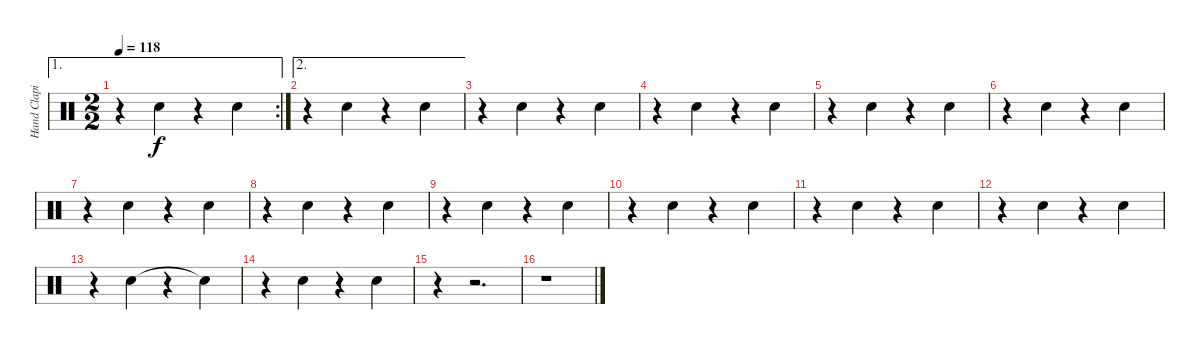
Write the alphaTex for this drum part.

\track ("Hand Claping" "Hand Clapi") {instrument percussion}
\staff {score}
\articulation defaults
\ae 1
\rc 2
\ts (2 2)
\tempo 118
\clef neutral
\ks c
r.4{dy f} "Hand Clap (hit)".4 r.4 "Hand Clap (hit)".4 |
\ae 2
r.4 "Hand Clap (hit)".4 r.4 "Hand Clap (hit)".4 |
r.4 "Hand Clap (hit)".4 r.4 "Hand Clap (hit)".4 |
r.4 "Hand Clap (hit)".4 r.4 "Hand Clap (hit)".4 |
r.4 "Hand Clap (hit)".4 r.4 "Hand Clap (hit)".4 |
r.4 "Hand Clap (hit)".4 r.4 "Hand Clap (hit)".4 |
r.4 "Hand Clap (hit)".4 r.4 "Hand Clap (hit)".4 |
r.4 "Hand Clap (hit)".4 r.4 "Hand Clap (hit)".4 |
r.4 "Hand Clap (hit)".4 r.4 "Hand Clap (hit)".4 |
r.4 "Hand Clap (hit)".4 r.4 "Hand Clap (hit)".4 |
r.4 "Hand Clap (hit)".4 r.4 "Hand Clap (hit)".4 |
r.4 "Hand Clap (hit)".4 r.4 "Hand Clap (hit)".4 |
r.4 "Hand Clap (hit)".4 r.4 "Hand Clap (hit)"{t}.4 |
r.4 "Hand Clap (hit)".4 r.4 "Hand Clap (hit)".4 |
r.4 r.2{d} |
r.1
